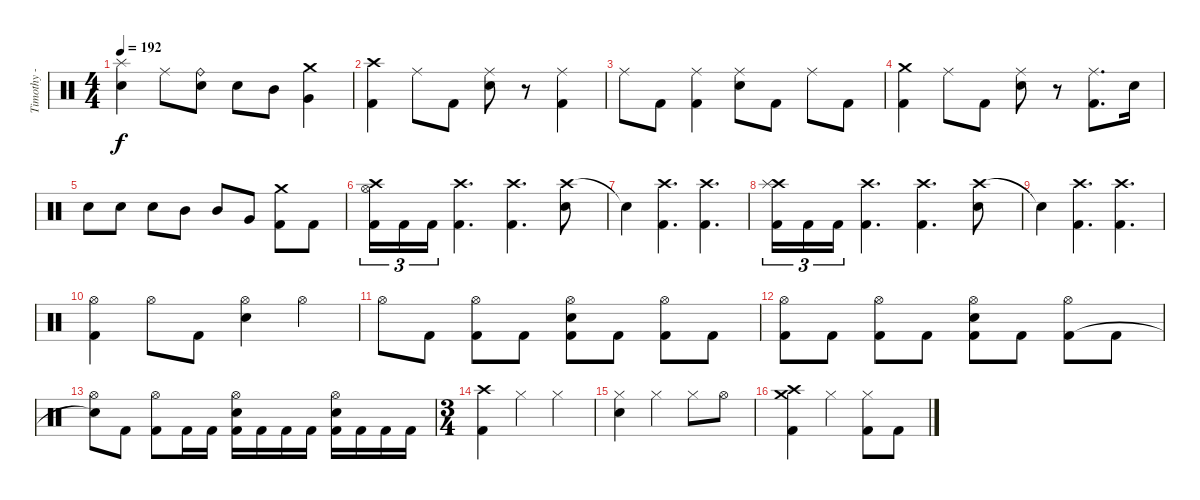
\track ("Timothy - Drums" "Timothy - ") {instrument percussion}
\staff {score}
\articulation defaults
\ts (4 4)
\tempo 192
\clef neutral
\ks c
("Splash (hit)" "Electric Snare (hit)").4{dy f} "Ride (middle)".8 ("Ride (bell)" "Electric Snare (hit)").8 "Electric Snare (hit)".8 "Mid Tom (hit)".8 ("Crash medium (hit)" "Very Low Tom (hit)").4 |
("Crash high (hit)" "Kick (hit) 2").4 "Ride (middle)".8 "Kick (hit) 2".8 ("Ride (middle)" "Electric Snare (hit)").8 r.8 ("Ride (middle)" "Kick (hit) 2").4 |
"Ride (middle)".8 "Kick (hit) 2".8 ("Ride (middle)" "Kick (hit) 2").4 ("Ride (middle)" "Electric Snare (hit)").8 "Kick (hit) 2".8 "Ride (middle)".8 "Kick (hit) 2".8 |
("Crash medium (hit)" "Kick (hit) 2").4 "Ride (middle)".8 "Kick (hit) 2".8 ("Ride (middle)" "Electric Snare (hit)").8 r.8 ("Ride (middle)" "Kick (hit) 2").8{d} "Electric Snare (hit)".16 |
"Electric Snare (hit)".8 "Electric Snare (hit)".8 "Electric Snare (hit)".8 "Mid Tom (hit)".8 "Mid Tom (hit)".8 "Very Low Tom (hit)".8 ("Crash medium (hit)" "Kick (hit) 2").8 "Kick (hit) 2".8 |
("Crash high (hit)" "Hi-Hat (open)" "Kick (hit) 2").16{tu (3 2)} "Kick (hit) 2".16{tu (3 2)} "Kick (hit) 2".16{tu (3 2)} ("Crash high (hit)" "Kick (hit) 2").4{d} ("Crash high (hit)" "Kick (hit) 2").4{d} ("Crash high (hit)" "Electric Snare (hit)").8 |
"Snare (hit)"{t}.4 ("Crash high (hit)" "Kick (hit) 2").4{d} ("Crash high (hit)" "Kick (hit) 2").4{d} |
("Crash high (hit)" "Splash (hit)" "Kick (hit) 2").16{tu (3 2)} "Kick (hit) 2".16{tu (3 2)} "Kick (hit) 2".16{tu (3 2)} ("Crash high (hit)" "Kick (hit) 2").4{d} ("Crash high (hit)" "Kick (hit) 2").4{d} ("Crash high (hit)" "Electric Snare (hit)").8 |
"Snare (hit)"{t}.4 ("Crash high (hit)" "Kick (hit) 2").4{d} ("Crash high (hit)" "Kick (hit) 2").4{d} |
("Hi-Hat (open)" "Kick (hit) 2").4 "Hi-Hat (open)".8 "Kick (hit) 2".8 ("Hi-Hat (open)" "Electric Snare (hit)").4 "Hi-Hat (open)".4 |
"Hi-Hat (open)".8 "Kick (hit) 2".8 ("Hi-Hat (open)" "Kick (hit) 2").8 "Kick (hit) 2".8 ("Hi-Hat (open)" "Electric Snare (hit)" "Kick (hit) 2").8 "Kick (hit) 2".8 ("Hi-Hat (open)" "Kick (hit) 2").8 "Kick (hit) 2".8 |
("Hi-Hat (open)" "Kick (hit) 2").8 "Kick (hit) 2".8 ("Hi-Hat (open)" "Kick (hit) 2").8 "Kick (hit) 2".8 ("Hi-Hat (open)" "Electric Snare (hit)" "Kick (hit) 2").8 "Kick (hit) 2".8 ("Hi-Hat (open)" "Kick (hit) 2").8 "Kick (hit) 2".8 |
("Hi-Hat (open)" "Snare (hit)"{t}).8 "Kick (hit) 2".8 ("Hi-Hat (open)" "Kick (hit) 2").8 "Kick (hit) 2".16 "Kick (hit) 2".16 ("Hi-Hat (open)" "Electric Snare (hit)" "Kick (hit) 2").16 "Kick (hit) 2".16 "Kick (hit) 2".16 "Kick (hit) 2".16 ("Hi-Hat (open)" "Electric Snare (hit)" "Kick (hit) 2").16 "Kick (hit) 2".16 "Kick (hit) 2".16 "Kick (hit) 2".16 |
\ts (3 4)
("Crash high (hit)" "Kick (hit) 2").4 "Hi-Hat (closed)".4 "Hi-Hat (closed)".4 |
("Hi-Hat (closed)" "Electric Snare (hit)").4 "Hi-Hat (closed)".4 "Hi-Hat (closed)".8 "Hi-Hat (open)".8 |
("Crash high (hit)" "Crash medium (hit)" "Kick (hit) 2").4 "Hi-Hat (closed)".4 ("Hi-Hat (closed)" "Kick (hit) 2").8 "Kick (hit) 2".8
